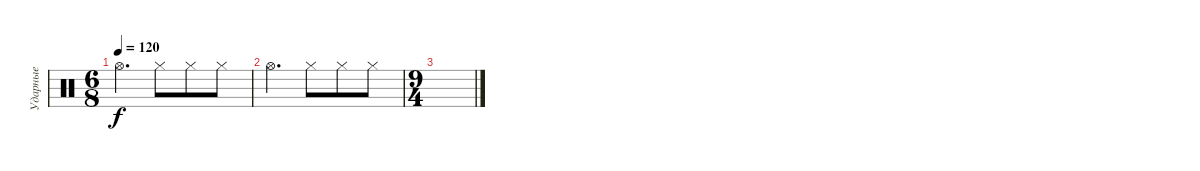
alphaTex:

\track ("Ударные" "Ударные") {instrument percussion}
\staff {score}
\articulation defaults
\ts (6 8)
\tempo 120
\clef neutral
\ks c "Hi-Hat (open)".4{d dy f} "Hi-Hat (closed)".8 "Hi-Hat (closed)".8 "Hi-Hat (closed)".8
|
"Hi-Hat (open)".4{d} "Hi-Hat (closed)".8 "Hi-Hat (closed)".8 "Hi-Hat (closed)".8 |
\ts (9 4)
